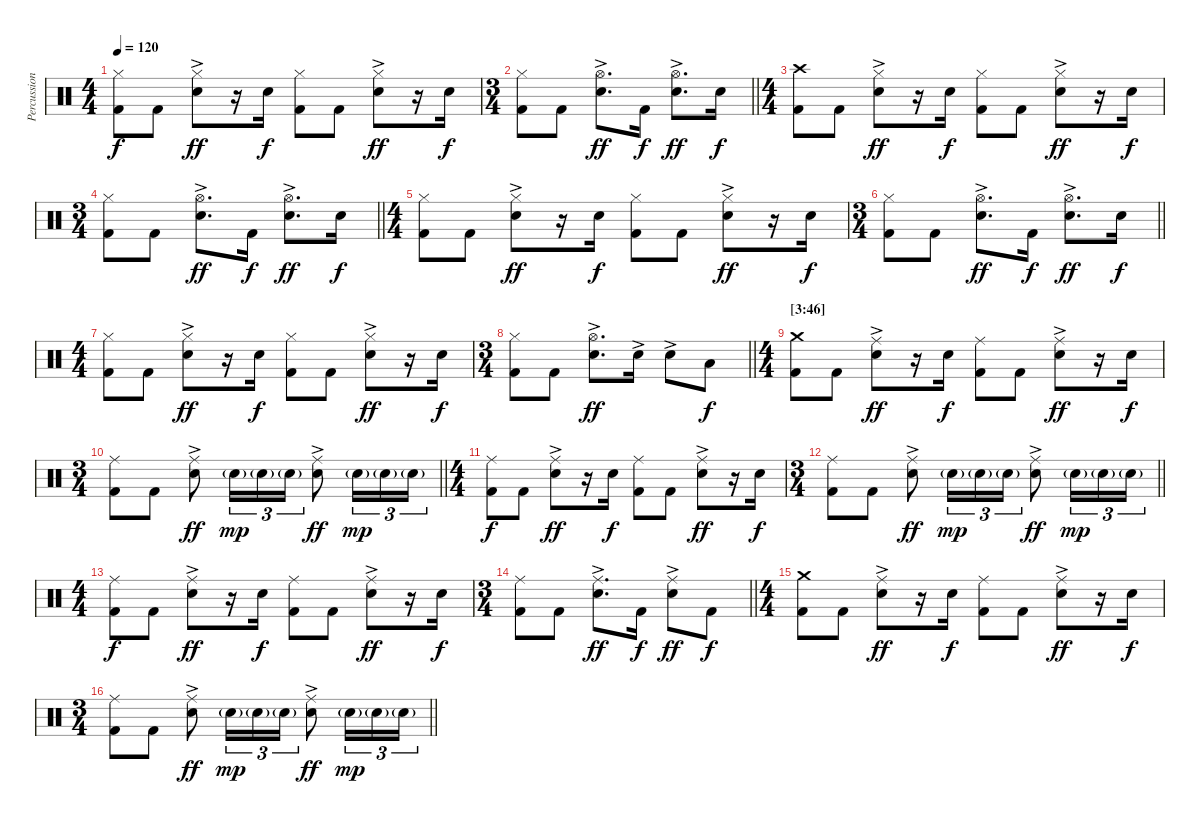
\track ("Percussion" "Percussion") {instrument percussion}
\staff {score}
\articulation defaults
\ts (4 4)
\tempo 120
\clef neutral
\ks c
("Hi-Hat (closed)" "Kick (hit) 2").8{dy f} "Kick (hit) 2".8 ("Hi-Hat (closed)" "Electric Snare (hit)"{ac}).8{dy ff} r.16 "Electric Snare (hit)".16{dy f} ("Hi-Hat (closed)" "Kick (hit) 2").8 "Kick (hit) 2".8 ("Hi-Hat (closed)" "Electric Snare (hit)"{ac}).8{dy ff} r.16 "Electric Snare (hit)".16{dy f} |
\ts (3 4)
\barLineRight lightlight
("Hi-Hat (closed)" "Kick (hit) 2").8 "Kick (hit) 2".8 ("Hi-Hat (open)" "Electric Snare (hit)"{ac}).8{d dy ff} "Kick (hit) 2".16{dy f} ("Hi-Hat (open)" "Electric Snare (hit)"{ac}).8{d dy ff} "Electric Snare (hit)".16{dy f} |
\ts (4 4)
("Crash high (hit)" "Kick (hit) 2").8 "Kick (hit) 2".8 ("Hi-Hat (closed)" "Electric Snare (hit)"{ac}).8{dy ff} r.16 "Electric Snare (hit)".16{dy f} ("Hi-Hat (closed)" "Kick (hit) 2").8 "Kick (hit) 2".8 ("Hi-Hat (closed)" "Electric Snare (hit)"{ac}).8{dy ff} r.16 "Electric Snare (hit)".16{dy f} |
\ts (3 4)
\barLineRight lightlight
("Hi-Hat (closed)" "Kick (hit) 2").8 "Kick (hit) 2".8 ("Hi-Hat (open)" "Electric Snare (hit)"{ac}).8{d dy ff} "Kick (hit) 2".16{dy f} ("Hi-Hat (open)" "Electric Snare (hit)"{ac}).8{d dy ff} "Electric Snare (hit)".16{dy f} |
\ts (4 4)
("Hi-Hat (closed)" "Kick (hit) 2").8 "Kick (hit) 2".8 ("Hi-Hat (closed)" "Electric Snare (hit)"{ac}).8{dy ff} r.16 "Electric Snare (hit)".16{dy f} ("Hi-Hat (closed)" "Kick (hit) 2").8 "Kick (hit) 2".8 ("Hi-Hat (closed)" "Electric Snare (hit)"{ac}).8{dy ff} r.16 "Electric Snare (hit)".16{dy f} |
\ts (3 4)
\barLineRight lightlight
("Hi-Hat (closed)" "Kick (hit) 2").8 "Kick (hit) 2".8 ("Hi-Hat (open)" "Electric Snare (hit)"{ac}).8{d dy ff} "Kick (hit) 2".16{dy f} ("Hi-Hat (open)" "Electric Snare (hit)"{ac}).8{d dy ff} "Electric Snare (hit)".16{dy f} |
\ts (4 4)
("Hi-Hat (closed)" "Kick (hit) 2").8 "Kick (hit) 2".8 ("Hi-Hat (closed)" "Electric Snare (hit)"{ac}).8{dy ff} r.16 "Electric Snare (hit)".16{dy f} ("Hi-Hat (closed)" "Kick (hit) 2").8 "Kick (hit) 2".8 ("Hi-Hat (closed)" "Electric Snare (hit)"{ac}).8{dy ff} r.16 "Electric Snare (hit)".16{dy f} |
\ts (3 4)
\barLineRight lightlight
("Hi-Hat (closed)" "Kick (hit) 2").8 "Kick (hit) 2".8 ("Hi-Hat (open)" "Electric Snare (hit)"{ac}).8{d dy ff} "Electric Snare (hit)"{ac}.16 "Electric Snare (hit)"{ac}.8 "Low Tom (hit)".8{dy f} |
\ts (4 4)
\section ("" "[3:46]")
("Crash medium (hit)" "Kick (hit) 2").8 "Kick (hit) 2".8 ("Ride (middle)" "Electric Snare (hit)"{ac}).8{dy ff} r.16 "Electric Snare (hit)".16{dy f} ("Ride (middle)" "Kick (hit) 2").8 "Kick (hit) 2".8 ("Ride (middle)" "Electric Snare (hit)"{ac}).8{dy ff} r.16 "Electric Snare (hit)".16{dy f} |
\ts (3 4)
\barLineRight lightlight
("Ride (middle)" "Kick (hit) 2").8 "Kick (hit) 2".8 ("Ride (middle)" "Electric Snare (hit)"{ac}).8{dy ff} "Electric Snare (hit)"{g}.16{tu (3 2) dy mp} "Electric Snare (hit)"{g}.16{tu (3 2)} "Electric Snare (hit)"{g}.16{tu (3 2)} ("Ride (middle)" "Electric Snare (hit)"{ac}).8{dy ff} "Electric Snare (hit)"{g}.16{tu (3 2) dy mp} "Electric Snare (hit)"{g}.16{tu (3 2)} "Electric Snare (hit)"{g}.16{tu (3 2)} |
\ts (4 4)
("Ride (middle)" "Kick (hit) 2").8{dy f} "Kick (hit) 2".8 ("Ride (middle)" "Electric Snare (hit)"{ac}).8{dy ff} r.16 "Electric Snare (hit)".16{dy f} ("Ride (middle)" "Kick (hit) 2").8 "Kick (hit) 2".8 ("Ride (middle)" "Electric Snare (hit)"{ac}).8{dy ff} r.16 "Electric Snare (hit)".16{dy f} |
\ts (3 4)
\barLineRight lightlight
("Ride (middle)" "Kick (hit) 2").8 "Kick (hit) 2".8 ("Ride (middle)" "Electric Snare (hit)"{ac}).8{dy ff} "Electric Snare (hit)"{g}.16{tu (3 2) dy mp} "Electric Snare (hit)"{g}.16{tu (3 2)} "Electric Snare (hit)"{g}.16{tu (3 2)} ("Ride (middle)" "Electric Snare (hit)"{ac}).8{dy ff} "Electric Snare (hit)"{g}.16{tu (3 2) dy mp} "Electric Snare (hit)"{g}.16{tu (3 2)} "Electric Snare (hit)"{g}.16{tu (3 2)} |
\ts (4 4)
("Ride (middle)" "Kick (hit) 2").8{dy f} "Kick (hit) 2".8 ("Ride (middle)" "Electric Snare (hit)"{ac}).8{dy ff} r.16 "Electric Snare (hit)".16{dy f} ("Ride (middle)" "Kick (hit) 2").8 "Kick (hit) 2".8 ("Ride (middle)" "Electric Snare (hit)"{ac}).8{dy ff} r.16 "Electric Snare (hit)".16{dy f} |
\ts (3 4)
\barLineRight lightlight
("Ride (middle)" "Kick (hit) 2").8 "Kick (hit) 2".8 ("Ride (middle)" "Electric Snare (hit)"{ac}).8{d dy ff} "Kick (hit) 2".16{dy f} ("Ride (middle)" "Electric Snare (hit)"{ac}).8{dy ff} "Kick (hit) 2".8{dy f} |
\ts (4 4)
("Crash medium (hit)" "Kick (hit) 2").8 "Kick (hit) 2".8 ("Ride (middle)" "Electric Snare (hit)"{ac}).8{dy ff} r.16 "Electric Snare (hit)".16{dy f} ("Ride (middle)" "Kick (hit) 2").8 "Kick (hit) 2".8 ("Ride (middle)" "Electric Snare (hit)"{ac}).8{dy ff} r.16 "Electric Snare (hit)".16{dy f} |
\ts (3 4)
\barLineRight lightlight
("Ride (middle)" "Kick (hit) 2").8 "Kick (hit) 2".8 ("Ride (middle)" "Electric Snare (hit)"{ac}).8{dy ff} "Electric Snare (hit)"{g}.16{tu (3 2) dy mp} "Electric Snare (hit)"{g}.16{tu (3 2)} "Electric Snare (hit)"{g}.16{tu (3 2)} ("Ride (middle)" "Electric Snare (hit)"{ac}).8{dy ff} "Electric Snare (hit)"{g}.16{tu (3 2) dy mp} "Electric Snare (hit)"{g}.16{tu (3 2)} "Electric Snare (hit)"{g}.16{tu (3 2)}
